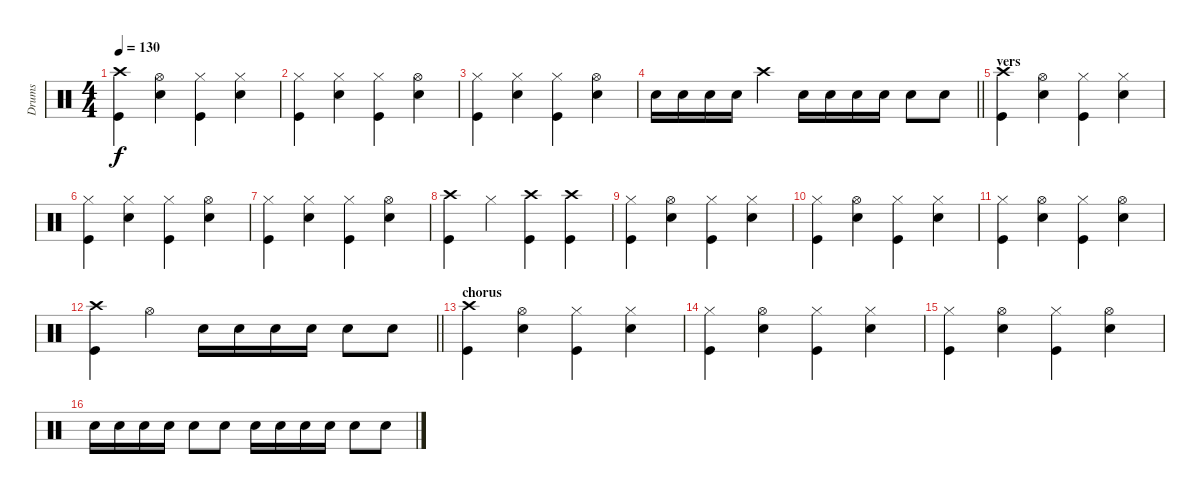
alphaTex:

\track ("Drums" "Drums") {instrument percussion}
\staff {score}
\articulation defaults
\ts (4 4)
\tempo 130
\clef neutral
\ks c
("Crash high (hit)" "Kick (hit)").4{dy f} ("Hi-Hat (open)" "Snare (hit) 2").4 ("Hi-Hat (closed)" "Kick (hit)").4 ("Snare (hit) 2" "Hi-Hat (closed)").4 |
("Kick (hit)" "Hi-Hat (closed)").4 ("Snare (hit) 2" "Hi-Hat (closed)").4 ("Kick (hit)" "Hi-Hat (closed)").4 ("Hi-Hat (open)" "Snare (hit) 2").4 |
("Kick (hit)" "Hi-Hat (closed)").4 ("Snare (hit) 2" "Hi-Hat (closed)").4 ("Kick (hit)" "Hi-Hat (closed)").4 ("Hi-Hat (open)" "Snare (hit) 2").4 |
\barLineRight lightlight "Snare (hit) 2".16 "Snare (hit) 2".16 "Snare (hit) 2".16 "Snare (hit) 2".16 "Crash high (hit)".4 "Snare (hit) 2".16 "Snare (hit) 2".16 "Snare (hit) 2".16 "Snare (hit) 2".16 "Snare (hit) 2".8 "Snare (hit) 2".8
|
\section ("" "vers")
("Crash high (hit)" "Kick (hit)").4 ("Hi-Hat (open)" "Snare (hit) 2").4 ("Hi-Hat (closed)" "Kick (hit)").4 ("Snare (hit) 2" "Hi-Hat (closed)").4 |
("Kick (hit)" "Hi-Hat (closed)").4 ("Snare (hit) 2" "Hi-Hat (closed)").4 ("Kick (hit)" "Hi-Hat (closed)").4 ("Hi-Hat (open)" "Snare (hit) 2").4 |
("Kick (hit)" "Hi-Hat (closed)").4 ("Snare (hit) 2" "Hi-Hat (closed)").4 ("Kick (hit)" "Hi-Hat (closed)").4 ("Hi-Hat (open)" "Snare (hit) 2").4 |
("Crash high (hit)" "Kick (hit)").4 "Hi-Hat (closed)".4 ("Crash high (hit)" "Kick (hit)").4 ("Crash high (hit)" "Kick (hit)").4 |
("Kick (hit)" "Hi-Hat (closed)").4 ("Snare (hit) 2" "Hi-Hat (open)").4 ("Kick (hit)" "Hi-Hat (closed)").4 ("Hi-Hat (closed)" "Snare (hit) 2").4 |
("Kick (hit)" "Hi-Hat (closed)").4 ("Snare (hit) 2" "Hi-Hat (open)").4 ("Kick (hit)" "Hi-Hat (closed)").4 ("Hi-Hat (closed)" "Snare (hit) 2").4 |
("Kick (hit)" "Hi-Hat (closed)").4 ("Snare (hit) 2" "Hi-Hat (open)").4 ("Kick (hit)" "Hi-Hat (closed)").4 ("Hi-Hat (open)" "Snare (hit) 2").4 |
\barLineRight lightlight
("Crash high (hit)" "Kick (hit)").4 "Hi-Hat (open)".4 "Snare (hit) 2".16 "Snare (hit) 2".16 "Snare (hit) 2".16 "Snare (hit) 2".16 "Snare (hit) 2".8 "Snare (hit) 2".8 |
\section ("" "chorus")
("Crash high (hit)" "Kick (hit)").4 ("Hi-Hat (open)" "Snare (hit) 2").4 ("Hi-Hat (closed)" "Kick (hit)").4 ("Snare (hit) 2" "Hi-Hat (closed)").4 |
("Kick (hit)" "Hi-Hat (closed)").4 ("Snare (hit) 2" "Hi-Hat (open)").4 ("Kick (hit)" "Hi-Hat (closed)").4 ("Hi-Hat (closed)" "Snare (hit) 2").4 |
("Kick (hit)" "Hi-Hat (closed)").4 ("Snare (hit) 2" "Hi-Hat (open)").4 ("Kick (hit)" "Hi-Hat (closed)").4 ("Hi-Hat (open)" "Snare (hit) 2").4 |
"Snare (hit) 2".16 "Snare (hit) 2".16 "Snare (hit) 2".16 "Snare (hit) 2".16 "Snare (hit) 2".8 "Snare (hit) 2".8 "Snare (hit) 2".16 "Snare (hit) 2".16 "Snare (hit) 2".16 "Snare (hit) 2".16 "Snare (hit) 2".8 "Snare (hit) 2".8
